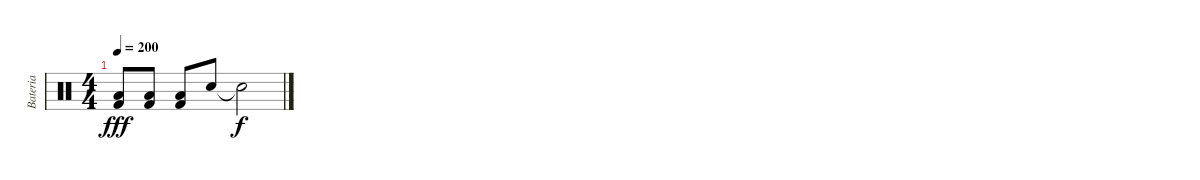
\track ("Bateria" "Bateria") {instrument percussion}
\staff {score}
\articulation defaults
\ts (4 4)
\tempo 200
\clef neutral
\ks c
("Low Floor Tom (hit)" "Kick (hit) 2").8{dy fff} ("Low Floor Tom (hit)" "Kick (hit) 2").8 ("Low Floor Tom (hit)" "Kick (hit) 2").8 "Electric Snare (hit)".8 "Snare (hit)"{t}.2{dy f}
